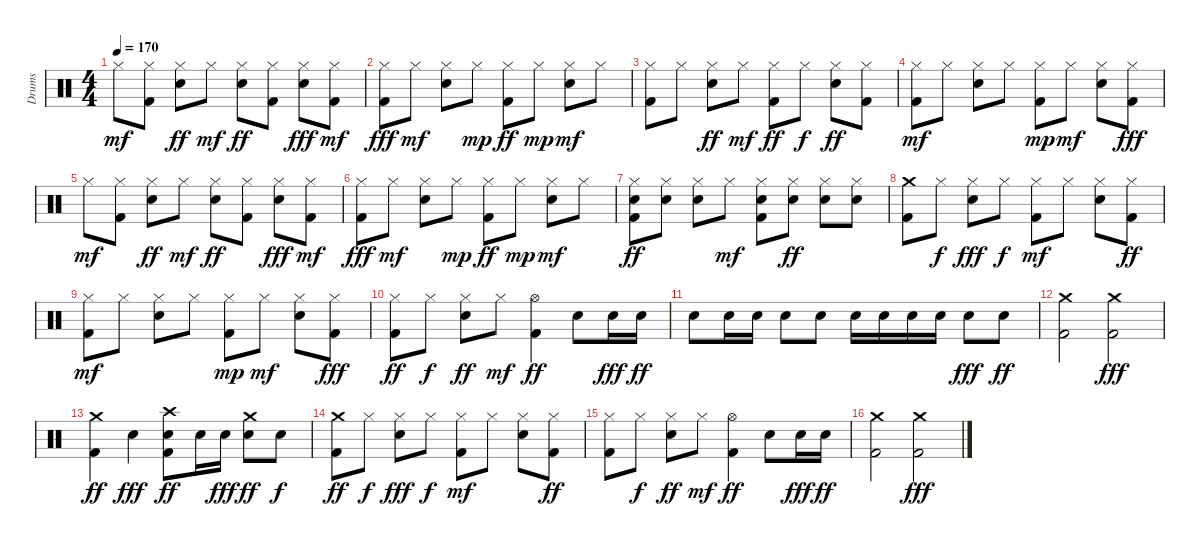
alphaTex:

\track ("Drums" "Drums") {instrument percussion}
\staff {score}
\articulation defaults
\ts (4 4)
\tempo 170
\clef neutral
\ks c "Hi-Hat (closed)".8{dy mf}
("Hi-Hat (closed)" "Kick (hit) 2").8 ("Hi-Hat (closed)" "Snare (hit) 2").8{dy ff} "Hi-Hat (closed)".8{dy mf} ("Hi-Hat (closed)" "Snare (hit) 2").8{dy ff} ("Hi-Hat (closed)" "Kick (hit) 2").8 ("Hi-Hat (closed)" "Snare (hit) 2").8{dy fff} ("Hi-Hat (closed)" "Kick (hit) 2").8{dy mf} |
("Hi-Hat (closed)" "Kick (hit) 2").8{dy fff} "Hi-Hat (closed)".8{dy mf} ("Hi-Hat (closed)" "Snare (hit) 2").8 "Hi-Hat (closed)".8{dy mp} ("Hi-Hat (closed)" "Kick (hit) 2").8{dy ff} "Hi-Hat (closed)".8{dy mp} ("Hi-Hat (closed)" "Snare (hit) 2").8{dy mf} "Hi-Hat (closed)".8 |
("Hi-Hat (closed)" "Kick (hit) 2").8 "Hi-Hat (closed)".8 ("Hi-Hat (closed)" "Snare (hit) 2").8{dy ff} "Hi-Hat (closed)".8{dy mf} ("Hi-Hat (closed)" "Kick (hit) 2").8{dy ff} "Hi-Hat (closed)".8{dy f} ("Hi-Hat (closed)" "Snare (hit) 2").8{dy ff} ("Hi-Hat (closed)" "Kick (hit) 2").8 |
("Hi-Hat (closed)" "Kick (hit) 2").8{dy mf} "Hi-Hat (closed)".8 ("Hi-Hat (closed)" "Snare (hit) 2").8 "Hi-Hat (closed)".8 ("Hi-Hat (closed)" "Kick (hit) 2").8{dy mp} "Hi-Hat (closed)".8{dy mf} ("Hi-Hat (closed)" "Snare (hit) 2").8 ("Hi-Hat (closed)" "Kick (hit) 2").8{dy fff} |
"Hi-Hat (closed)".8{dy mf} ("Hi-Hat (closed)" "Kick (hit) 2").8 ("Hi-Hat (closed)" "Snare (hit) 2").8{dy ff} "Hi-Hat (closed)".8{dy mf} ("Hi-Hat (closed)" "Snare (hit) 2").8{dy ff} ("Hi-Hat (closed)" "Kick (hit) 2").8 ("Hi-Hat (closed)" "Snare (hit) 2").8{dy fff} ("Hi-Hat (closed)" "Kick (hit) 2").8{dy mf} |
("Hi-Hat (closed)" "Kick (hit) 2").8{dy fff} "Hi-Hat (closed)".8{dy mf} ("Hi-Hat (closed)" "Snare (hit) 2").8 "Hi-Hat (closed)".8{dy mp} ("Hi-Hat (closed)" "Kick (hit) 2").8{dy ff} "Hi-Hat (closed)".8{dy mp} ("Hi-Hat (closed)" "Snare (hit) 2").8{dy mf} "Hi-Hat (closed)".8 |
("Kick (hit) 2" "Hi-Hat (closed)" "Snare (hit) 2").8{dy ff} ("Hi-Hat (closed)" "Snare (hit) 2").8 ("Hi-Hat (closed)" "Snare (hit) 2").8 "Hi-Hat (closed)".8{dy mf} ("Kick (hit) 2" "Snare (hit) 2" "Hi-Hat (closed)").8 ("Hi-Hat (closed)" "Snare (hit) 2").8{dy ff} ("Hi-Hat (closed)" "Snare (hit) 2").8 ("Hi-Hat (closed)" "Snare (hit) 2").8 |
("Crash medium (hit)" "Kick (hit) 2").8 "Hi-Hat (closed)".8{dy f} ("Hi-Hat (closed)" "Snare (hit) 2").8{dy fff} "Hi-Hat (closed)".8{dy f} ("Kick (hit) 2" "Hi-Hat (closed)").8{dy mf} "Hi-Hat (closed)".8 ("Snare (hit) 2" "Hi-Hat (closed)").8 ("Hi-Hat (closed)" "Kick (hit) 2").8{dy ff} |
("Hi-Hat (closed)" "Kick (hit) 2").8{dy mf} "Hi-Hat (closed)".8 ("Hi-Hat (closed)" "Snare (hit) 2").8 "Hi-Hat (closed)".8 ("Hi-Hat (closed)" "Kick (hit) 2").8{dy mp} "Hi-Hat (closed)".8{dy mf} ("Hi-Hat (closed)" "Snare (hit) 2").8 ("Hi-Hat (closed)" "Kick (hit) 2").8{dy fff} |
("Hi-Hat (closed)" "Kick (hit) 2").8{dy ff} "Hi-Hat (closed)".8{dy f} ("Hi-Hat (closed)" "Snare (hit) 2").8{dy ff} "Hi-Hat (closed)".8{dy mf} ("Kick (hit) 2" "Hi-Hat (open)").4{dy ff} "Snare (hit) 2".8 "Snare (hit) 2".16{dy fff} "Snare (hit) 2".16{dy ff} |
"Snare (hit) 2".8 "Snare (hit) 2".16 "Snare (hit) 2".16 "Snare (hit) 2".8 "Snare (hit) 2".8 "Snare (hit) 2".16 "Snare (hit) 2".16 "Snare (hit) 2".16 "Snare (hit) 2".16 "Snare (hit) 2".8{dy fff} "Snare (hit) 2".8{dy ff} |
("Kick (hit) 2" "Crash medium (hit)").2 ("Kick (hit) 2" "Crash medium (hit)").2{dy fff} |
("Crash medium (hit)" "Kick (hit) 2").4{dy ff} "Snare (hit) 2".4{dy fff} ("Snare (hit) 2" "Kick (hit) 2" "Crash high (hit)").8{dy ff} "Snare (hit) 2".16 "Snare (hit) 2".16{dy fff} ("Snare (hit) 2" "Crash medium (hit)").8{dy ff} "Snare (hit) 2".8{dy f} |
("Crash medium (hit)" "Kick (hit) 2").8{dy ff} "Hi-Hat (closed)".8{dy f} ("Hi-Hat (closed)" "Snare (hit) 2").8{dy fff} "Hi-Hat (closed)".8{dy f} ("Kick (hit) 2" "Hi-Hat (closed)").8{dy mf} "Hi-Hat (closed)".8 ("Snare (hit) 2" "Hi-Hat (closed)").8 ("Hi-Hat (closed)" "Kick (hit) 2").8{dy ff} |
("Hi-Hat (closed)" "Kick (hit) 2").8 "Hi-Hat (closed)".8{dy f} ("Hi-Hat (closed)" "Snare (hit) 2").8{dy ff} "Hi-Hat (closed)".8{dy mf} ("Kick (hit) 2" "Hi-Hat (open)").4{dy ff} "Snare (hit) 2".8 "Snare (hit) 2".16{dy fff} "Snare (hit) 2".16{dy ff} |
("Kick (hit) 2" "Crash medium (hit)").2 ("Kick (hit) 2" "Crash medium (hit)").2{dy fff}
